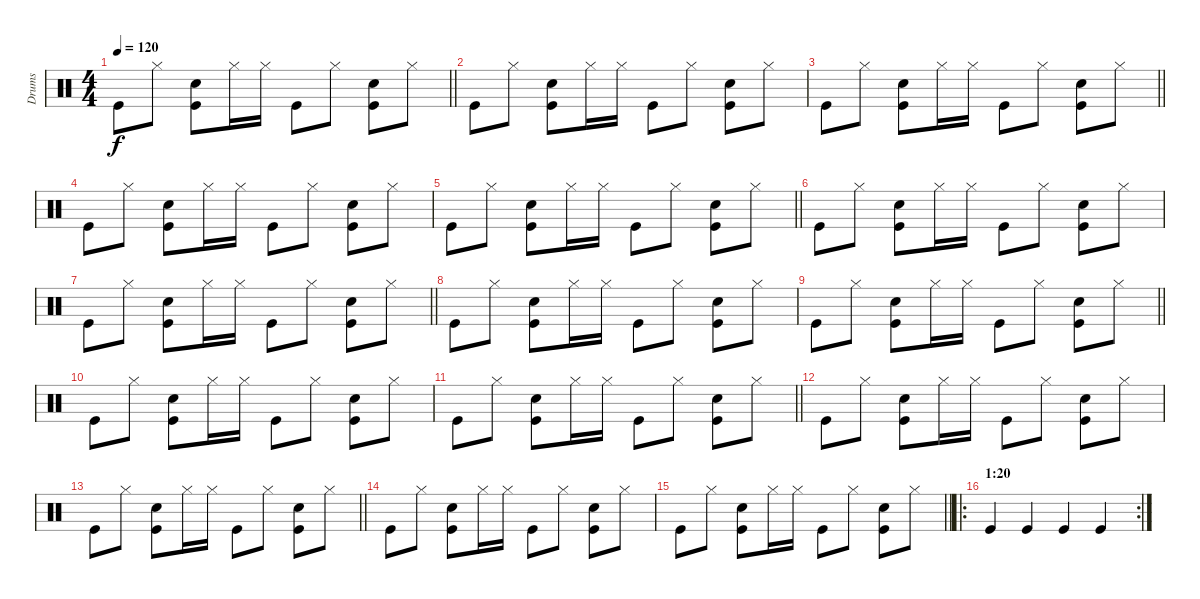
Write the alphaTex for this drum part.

\track ("Drums" "Drums") {instrument percussion}
\staff {score}
\articulation defaults
\ts (4 4)
\tempo 120
\clef neutral
\barLineRight lightlight
\ks c "Kick (hit)".8{dy f} "Hi-Hat (closed)".8
("Snare (hit) 2" "Kick (hit)").8 "Hi-Hat (closed)".16 "Hi-Hat (closed)".16 "Kick (hit)".8 "Hi-Hat (closed)".8 ("Snare (hit) 2" "Kick (hit)").8 "Hi-Hat (closed)".8 |
"Kick (hit)".8 "Hi-Hat (closed)".8 ("Snare (hit) 2" "Kick (hit)").8 "Hi-Hat (closed)".16 "Hi-Hat (closed)".16 "Kick (hit)".8 "Hi-Hat (closed)".8 ("Snare (hit) 2" "Kick (hit)").8 "Hi-Hat (closed)".8 |
\barLineRight lightlight "Kick (hit)".8 "Hi-Hat (closed)".8
("Snare (hit) 2" "Kick (hit)").8 "Hi-Hat (closed)".16 "Hi-Hat (closed)".16 "Kick (hit)".8 "Hi-Hat (closed)".8 ("Snare (hit) 2" "Kick (hit)").8 "Hi-Hat (closed)".8 |
"Kick (hit)".8 "Hi-Hat (closed)".8 ("Snare (hit) 2" "Kick (hit)").8 "Hi-Hat (closed)".16 "Hi-Hat (closed)".16 "Kick (hit)".8 "Hi-Hat (closed)".8 ("Snare (hit) 2" "Kick (hit)").8 "Hi-Hat (closed)".8 |
\barLineRight lightlight "Kick (hit)".8 "Hi-Hat (closed)".8
("Snare (hit) 2" "Kick (hit)").8 "Hi-Hat (closed)".16 "Hi-Hat (closed)".16 "Kick (hit)".8 "Hi-Hat (closed)".8 ("Snare (hit) 2" "Kick (hit)").8 "Hi-Hat (closed)".8 |
"Kick (hit)".8 "Hi-Hat (closed)".8 ("Snare (hit) 2" "Kick (hit)").8 "Hi-Hat (closed)".16 "Hi-Hat (closed)".16 "Kick (hit)".8 "Hi-Hat (closed)".8 ("Snare (hit) 2" "Kick (hit)").8 "Hi-Hat (closed)".8 |
\barLineRight lightlight "Kick (hit)".8 "Hi-Hat (closed)".8
("Snare (hit) 2" "Kick (hit)").8 "Hi-Hat (closed)".16 "Hi-Hat (closed)".16 "Kick (hit)".8 "Hi-Hat (closed)".8 ("Snare (hit) 2" "Kick (hit)").8 "Hi-Hat (closed)".8 |
"Kick (hit)".8 "Hi-Hat (closed)".8 ("Snare (hit) 2" "Kick (hit)").8 "Hi-Hat (closed)".16 "Hi-Hat (closed)".16 "Kick (hit)".8 "Hi-Hat (closed)".8 ("Snare (hit) 2" "Kick (hit)").8 "Hi-Hat (closed)".8 |
\barLineRight lightlight "Kick (hit)".8 "Hi-Hat (closed)".8
("Snare (hit) 2" "Kick (hit)").8 "Hi-Hat (closed)".16 "Hi-Hat (closed)".16 "Kick (hit)".8 "Hi-Hat (closed)".8 ("Snare (hit) 2" "Kick (hit)").8 "Hi-Hat (closed)".8 |
"Kick (hit)".8 "Hi-Hat (closed)".8 ("Snare (hit) 2" "Kick (hit)").8 "Hi-Hat (closed)".16 "Hi-Hat (closed)".16 "Kick (hit)".8 "Hi-Hat (closed)".8 ("Snare (hit) 2" "Kick (hit)").8 "Hi-Hat (closed)".8 |
\barLineRight lightlight "Kick (hit)".8 "Hi-Hat (closed)".8
("Snare (hit) 2" "Kick (hit)").8 "Hi-Hat (closed)".16 "Hi-Hat (closed)".16 "Kick (hit)".8 "Hi-Hat (closed)".8 ("Snare (hit) 2" "Kick (hit)").8 "Hi-Hat (closed)".8 |
"Kick (hit)".8 "Hi-Hat (closed)".8 ("Snare (hit) 2" "Kick (hit)").8 "Hi-Hat (closed)".16 "Hi-Hat (closed)".16 "Kick (hit)".8 "Hi-Hat (closed)".8 ("Snare (hit) 2" "Kick (hit)").8 "Hi-Hat (closed)".8 |
\barLineRight lightlight "Kick (hit)".8 "Hi-Hat (closed)".8
("Snare (hit) 2" "Kick (hit)").8 "Hi-Hat (closed)".16 "Hi-Hat (closed)".16 "Kick (hit)".8 "Hi-Hat (closed)".8 ("Snare (hit) 2" "Kick (hit)").8 "Hi-Hat (closed)".8 |
"Kick (hit)".8 "Hi-Hat (closed)".8 ("Snare (hit) 2" "Kick (hit)").8 "Hi-Hat (closed)".16 "Hi-Hat (closed)".16 "Kick (hit)".8 "Hi-Hat (closed)".8 ("Snare (hit) 2" "Kick (hit)").8 "Hi-Hat (closed)".8 |
\barLineRight lightlight "Kick (hit)".8 "Hi-Hat (closed)".8
("Snare (hit) 2" "Kick (hit)").8 "Hi-Hat (closed)".16 "Hi-Hat (closed)".16 "Kick (hit)".8 "Hi-Hat (closed)".8 ("Snare (hit) 2" "Kick (hit)").8 "Hi-Hat (closed)".8 |
\ro
\rc 2
\section ("" "1:20")
"Kick (hit)".4 "Kick (hit)".4 "Kick (hit)".4 "Kick (hit)".4
